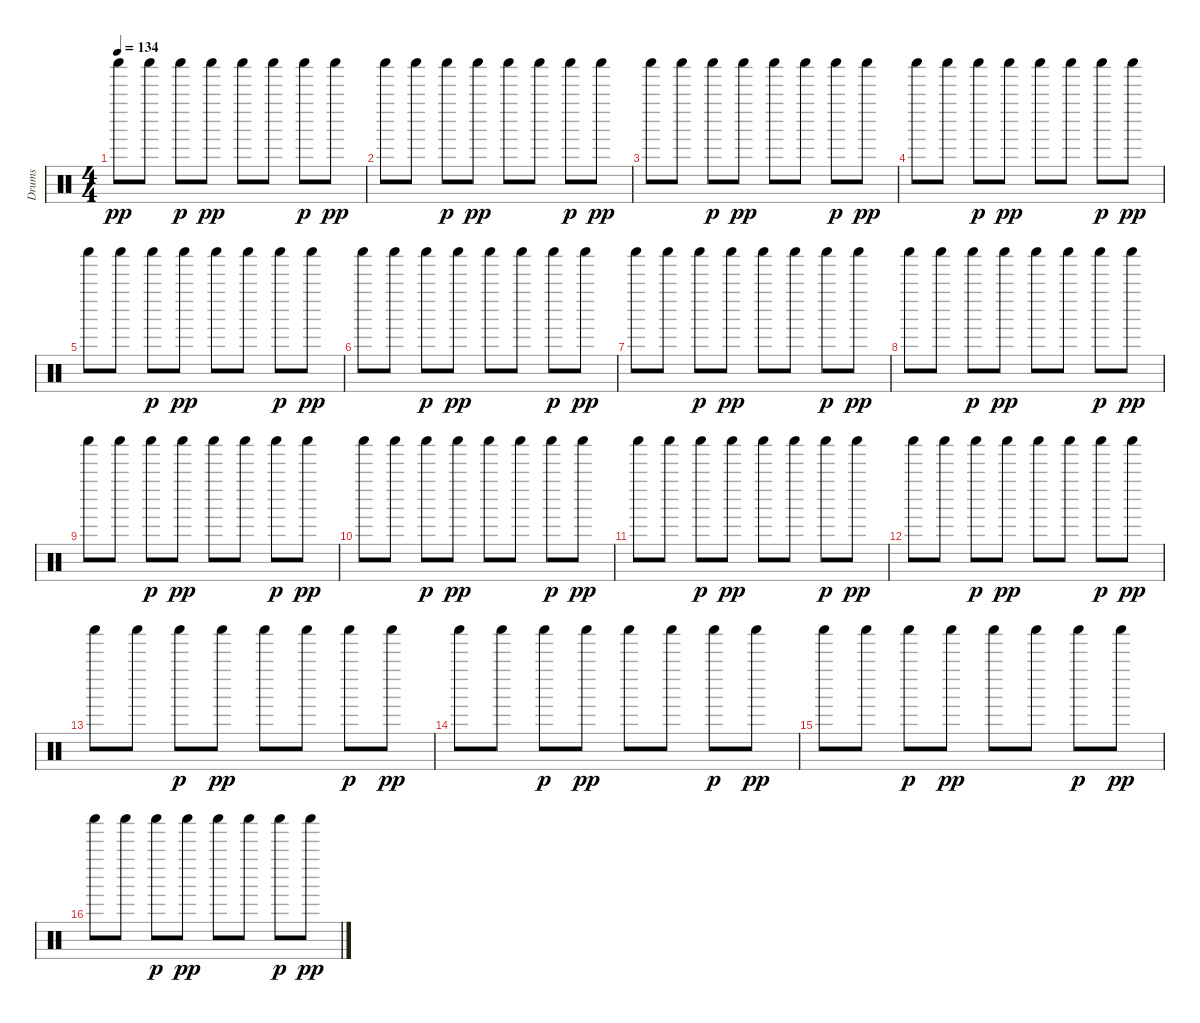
\track ("Drums" "Drums") {instrument percussion}
\staff {score}
\articulation defaults
\ts (4 4)
\tempo 134
\clef neutral
\ks c "Shaker (hit)".8{dy pp} "Shaker (hit)".8 "Shaker (hit)".8{dy p} "Shaker (hit)".8{dy pp} "Shaker (hit)".8 "Shaker (hit)".8 "Shaker (hit)".8{dy p} "Shaker (hit)".8{dy pp}
|
"Shaker (hit)".8 "Shaker (hit)".8 "Shaker (hit)".8{dy p} "Shaker (hit)".8{dy pp} "Shaker (hit)".8 "Shaker (hit)".8 "Shaker (hit)".8{dy p} "Shaker (hit)".8{dy pp} |
"Shaker (hit)".8 "Shaker (hit)".8 "Shaker (hit)".8{dy p} "Shaker (hit)".8{dy pp} "Shaker (hit)".8 "Shaker (hit)".8 "Shaker (hit)".8{dy p} "Shaker (hit)".8{dy pp} |
"Shaker (hit)".8 "Shaker (hit)".8 "Shaker (hit)".8{dy p} "Shaker (hit)".8{dy pp} "Shaker (hit)".8 "Shaker (hit)".8 "Shaker (hit)".8{dy p} "Shaker (hit)".8{dy pp} |
"Shaker (hit)".8 "Shaker (hit)".8 "Shaker (hit)".8{dy p} "Shaker (hit)".8{dy pp} "Shaker (hit)".8 "Shaker (hit)".8 "Shaker (hit)".8{dy p} "Shaker (hit)".8{dy pp} |
"Shaker (hit)".8 "Shaker (hit)".8 "Shaker (hit)".8{dy p} "Shaker (hit)".8{dy pp} "Shaker (hit)".8 "Shaker (hit)".8 "Shaker (hit)".8{dy p} "Shaker (hit)".8{dy pp} |
"Shaker (hit)".8 "Shaker (hit)".8 "Shaker (hit)".8{dy p} "Shaker (hit)".8{dy pp} "Shaker (hit)".8 "Shaker (hit)".8 "Shaker (hit)".8{dy p} "Shaker (hit)".8{dy pp} |
"Shaker (hit)".8 "Shaker (hit)".8 "Shaker (hit)".8{dy p} "Shaker (hit)".8{dy pp} "Shaker (hit)".8 "Shaker (hit)".8 "Shaker (hit)".8{dy p} "Shaker (hit)".8{dy pp} |
"Shaker (hit)".8 "Shaker (hit)".8 "Shaker (hit)".8{dy p} "Shaker (hit)".8{dy pp} "Shaker (hit)".8 "Shaker (hit)".8 "Shaker (hit)".8{dy p} "Shaker (hit)".8{dy pp} |
"Shaker (hit)".8 "Shaker (hit)".8 "Shaker (hit)".8{dy p} "Shaker (hit)".8{dy pp} "Shaker (hit)".8 "Shaker (hit)".8 "Shaker (hit)".8{dy p} "Shaker (hit)".8{dy pp} |
"Shaker (hit)".8 "Shaker (hit)".8 "Shaker (hit)".8{dy p} "Shaker (hit)".8{dy pp} "Shaker (hit)".8 "Shaker (hit)".8 "Shaker (hit)".8{dy p} "Shaker (hit)".8{dy pp} |
"Shaker (hit)".8 "Shaker (hit)".8 "Shaker (hit)".8{dy p} "Shaker (hit)".8{dy pp} "Shaker (hit)".8 "Shaker (hit)".8 "Shaker (hit)".8{dy p} "Shaker (hit)".8{dy pp} |
"Shaker (hit)".8 "Shaker (hit)".8 "Shaker (hit)".8{dy p} "Shaker (hit)".8{dy pp} "Shaker (hit)".8 "Shaker (hit)".8 "Shaker (hit)".8{dy p} "Shaker (hit)".8{dy pp} |
"Shaker (hit)".8 "Shaker (hit)".8 "Shaker (hit)".8{dy p} "Shaker (hit)".8{dy pp} "Shaker (hit)".8 "Shaker (hit)".8 "Shaker (hit)".8{dy p} "Shaker (hit)".8{dy pp} |
"Shaker (hit)".8 "Shaker (hit)".8 "Shaker (hit)".8{dy p} "Shaker (hit)".8{dy pp} "Shaker (hit)".8 "Shaker (hit)".8 "Shaker (hit)".8{dy p} "Shaker (hit)".8{dy pp} |
"Shaker (hit)".8 "Shaker (hit)".8 "Shaker (hit)".8{dy p} "Shaker (hit)".8{dy pp} "Shaker (hit)".8 "Shaker (hit)".8 "Shaker (hit)".8{dy p} "Shaker (hit)".8{dy pp}
